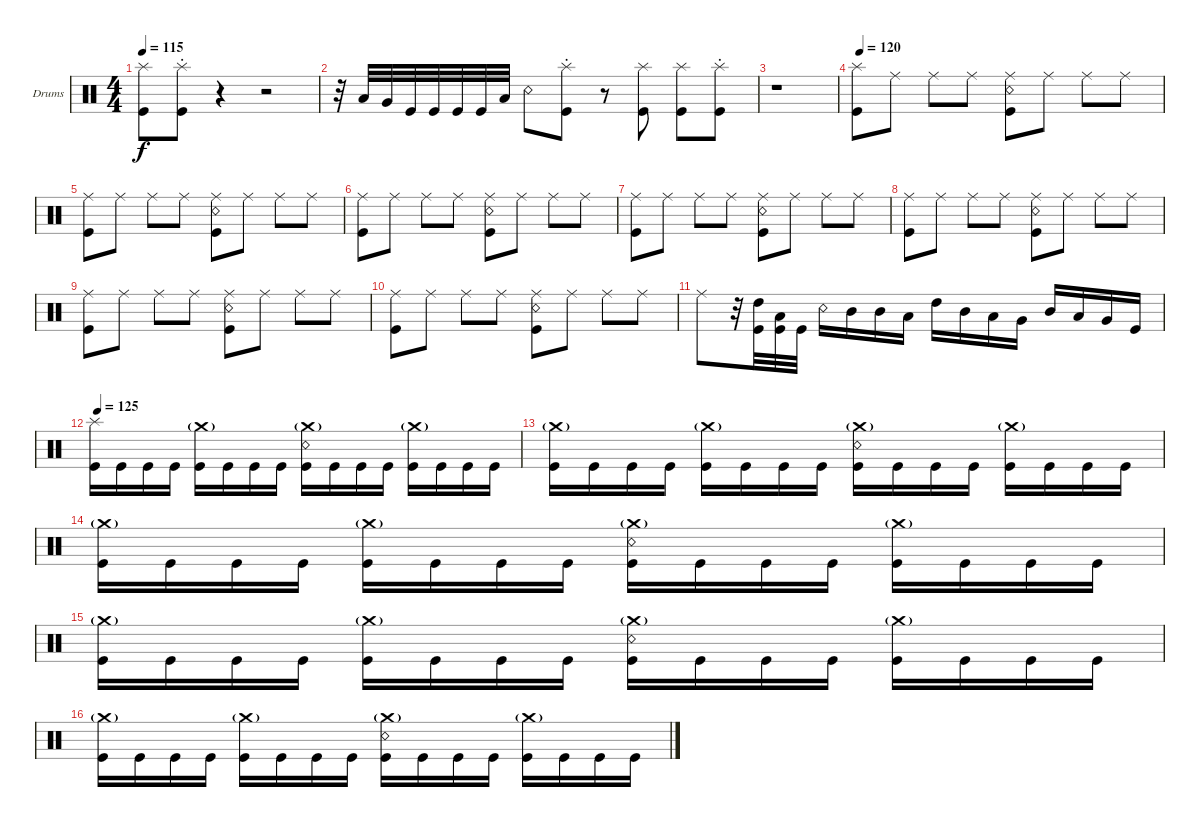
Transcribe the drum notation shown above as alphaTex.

\defaultSystemsLayout 4
\bracketExtendMode groupsimilarinstruments
\firstSystemTrackNameOrientation horizontal
\otherSystemsTrackNameOrientation horizontal
\track ("Drumkit" "Drums") {instrument percussion}
\staff {score}
\articulation defaults
\ts (4 4)
\tempo 115
\clef neutral
\ks c
("Kick (hit)" "Splash (hit)").8{dy f} ("Kick (hit)" "Splash (hit)"{st}).8 r.4 r.2 |
r.32 "Low Tom (hit)".32 "Very Low Tom (hit)".32 "Kick (hit)".32 "Kick (hit)".32 "Kick (hit)".32 "Kick (hit)".32 "Low Tom (hit)".32 "Snare (rim shot)".8 ("Kick (hit)" "Splash (hit)"{st}).8 r.8 ("Kick (hit)" "Splash (hit)").8 ("Kick (hit)" "Splash (hit)").8 ("Kick (hit)" "Splash (hit)"{st}).8 |
r.1 |
\tempo (120 0.0125)
("Kick (hit)" "Splash (hit)").8 "Ride (middle)".8 "Ride (middle)".8 "Ride (middle)".8 ("Ride (middle)" "Snare (rim shot)" "Kick (hit)").8 "Ride (middle)".8 "Ride (middle)".8 "Ride (middle)".8 |
("Kick (hit)" "Ride (middle)").8 "Ride (middle)".8 "Ride (middle)".8 "Ride (middle)".8 ("Ride (middle)" "Snare (rim shot)" "Kick (hit)").8 "Ride (middle)".8 "Ride (middle)".8 "Ride (middle)".8 |
("Kick (hit)" "Ride (middle)").8 "Ride (middle)".8 "Ride (middle)".8 "Ride (middle)".8 ("Ride (middle)" "Snare (rim shot)" "Kick (hit)").8 "Ride (middle)".8 "Ride (middle)".8 "Ride (middle)".8 |
("Kick (hit)" "Ride (middle)").8 "Ride (middle)".8 "Ride (middle)".8 "Ride (middle)".8 ("Ride (middle)" "Snare (rim shot)" "Kick (hit)").8 "Ride (middle)".8 "Ride (middle)".8 "Ride (middle)".8 |
("Kick (hit)" "Ride (middle)").8 "Ride (middle)".8 "Ride (middle)".8 "Ride (middle)".8 ("Ride (middle)" "Snare (rim shot)" "Kick (hit)").8 "Ride (middle)".8 "Ride (middle)".8 "Ride (middle)".8 |
("Kick (hit)" "Ride (middle)").8 "Ride (middle)".8 "Ride (middle)".8 "Ride (middle)".8 ("Ride (middle)" "Snare (rim shot)" "Kick (hit)").8 "Ride (middle)".8 "Ride (middle)".8 "Ride (middle)".8 |
("Kick (hit)" "Ride (middle)").8 "Ride (middle)".8 "Ride (middle)".8 "Ride (middle)".8 ("Ride (middle)" "Snare (rim shot)" "Kick (hit)").8 "Ride (middle)".8 "Ride (middle)".8 "Ride (middle)".8 |
"Ride (middle)".8 r.32 ("High Tom (hit)" "Kick (hit)").32 ("Low Tom (hit)" "Kick (hit)").32 "Kick (hit)".32 "Snare (rim shot)".16 "Mid Tom (hit)".16 "Mid Tom (hit)".16 "Low Tom (hit)".16 "High Tom (hit)".16 "Mid Tom (hit)".16 "Low Tom (hit)".16 "Very Low Tom (hit)".16 "Mid Tom (hit)".16 "Low Tom (hit)".16 "Very Low Tom (hit)".16 "Kick (hit)".16 |
\tempo (125 0.00925926)
("Kick (hit)" "Splash (hit)").16 "Kick (hit)".16 "Kick (hit)".16 "Kick (hit)".16 ("Kick (hit)" "Crash medium (hit)"{g}).16 "Kick (hit)".16 "Kick (hit)".16 "Kick (hit)".16 ("Kick (hit)" "Snare (rim shot)" "Crash medium (hit)"{g}).16 "Kick (hit)".16 "Kick (hit)".16 "Kick (hit)".16 ("Kick (hit)" "Crash medium (hit)"{g}).16 "Kick (hit)".16 "Kick (hit)".16 "Kick (hit)".16 |
("Kick (hit)" "Crash medium (hit)"{g}).16 "Kick (hit)".16 "Kick (hit)".16 "Kick (hit)".16 ("Kick (hit)" "Crash medium (hit)"{g}).16 "Kick (hit)".16 "Kick (hit)".16 "Kick (hit)".16 ("Kick (hit)" "Snare (rim shot)" "Crash medium (hit)"{g}).16 "Kick (hit)".16 "Kick (hit)".16 "Kick (hit)".16 ("Kick (hit)" "Crash medium (hit)"{g}).16 "Kick (hit)".16 "Kick (hit)".16 "Kick (hit)".16 |
("Kick (hit)" "Crash medium (hit)"{g}).16 "Kick (hit)".16 "Kick (hit)".16 "Kick (hit)".16 ("Kick (hit)" "Crash medium (hit)"{g}).16 "Kick (hit)".16 "Kick (hit)".16 "Kick (hit)".16 ("Kick (hit)" "Snare (rim shot)" "Crash medium (hit)"{g}).16 "Kick (hit)".16 "Kick (hit)".16 "Kick (hit)".16 ("Kick (hit)" "Crash medium (hit)"{g}).16 "Kick (hit)".16 "Kick (hit)".16 "Kick (hit)".16 |
("Kick (hit)" "Crash medium (hit)"{g}).16 "Kick (hit)".16 "Kick (hit)".16 "Kick (hit)".16 ("Kick (hit)" "Crash medium (hit)"{g}).16 "Kick (hit)".16 "Kick (hit)".16 "Kick (hit)".16 ("Kick (hit)" "Snare (rim shot)" "Crash medium (hit)"{g}).16 "Kick (hit)".16 "Kick (hit)".16 "Kick (hit)".16 ("Kick (hit)" "Crash medium (hit)"{g}).16 "Kick (hit)".16 "Kick (hit)".16 "Kick (hit)".16 |
("Kick (hit)" "Crash medium (hit)"{g}).16 "Kick (hit)".16 "Kick (hit)".16 "Kick (hit)".16 ("Kick (hit)" "Crash medium (hit)"{g}).16 "Kick (hit)".16 "Kick (hit)".16 "Kick (hit)".16 ("Kick (hit)" "Snare (rim shot)" "Crash medium (hit)"{g}).16 "Kick (hit)".16 "Kick (hit)".16 "Kick (hit)".16 ("Kick (hit)" "Crash medium (hit)"{g}).16 "Kick (hit)".16 "Kick (hit)".16 "Kick (hit)".16
